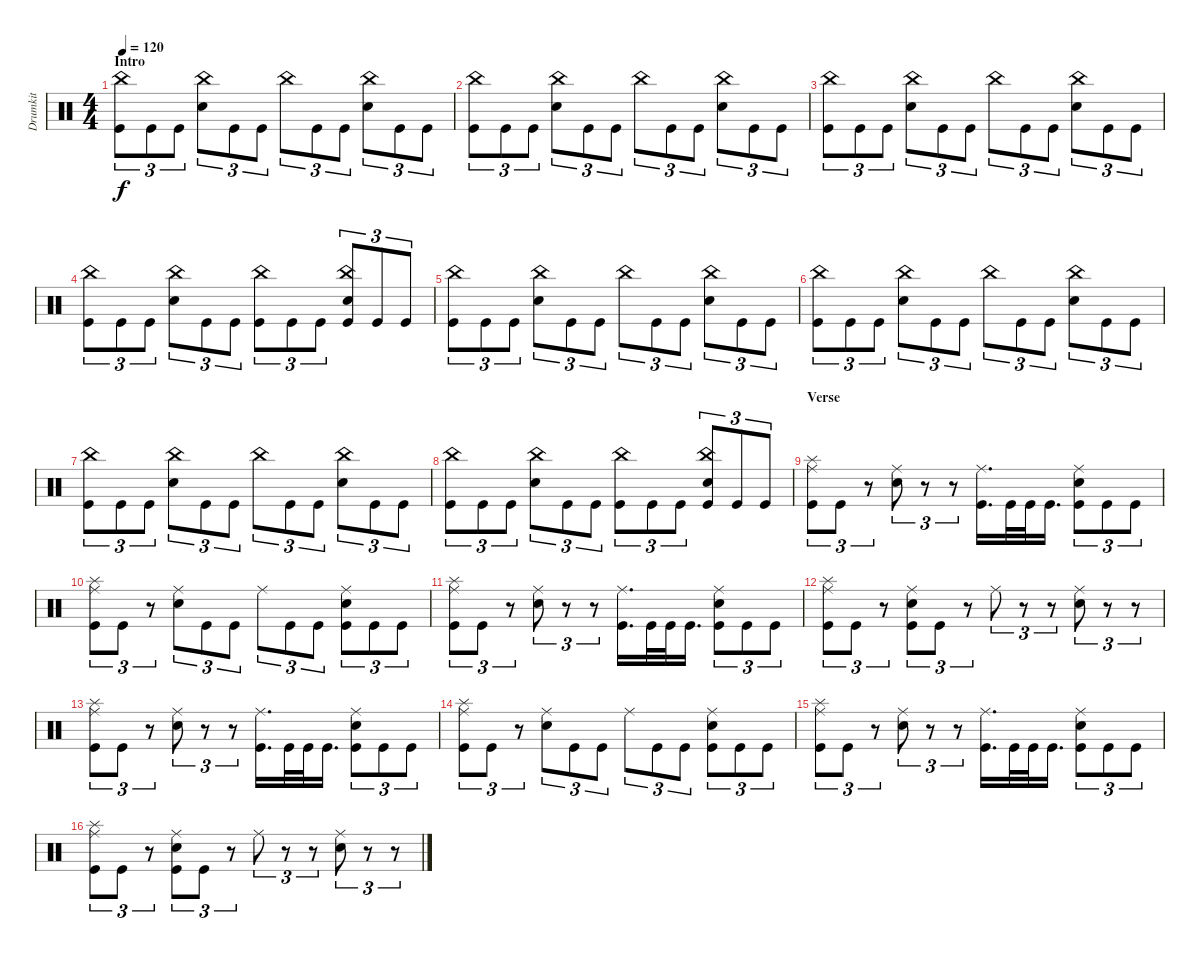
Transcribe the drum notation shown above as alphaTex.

\track ("Drumkit" "Drumkit") {instrument percussion}
\staff {score}
\articulation defaults
\ts (4 4)
\section ("" "Intro")
\tempo 120
\clef neutral
\ks c
("Kick (hit)" "China (hit)").8{tu (3 2) dy f} "Kick (hit)".8{tu (3 2)} "Kick (hit)".8{tu (3 2)} ("Snare (hit) 2" "China (hit)").8{tu (3 2)} "Kick (hit)".8{tu (3 2)} "Kick (hit)".8{tu (3 2)} "China (hit)".8{tu (3 2)} "Kick (hit)".8{tu (3 2)} "Kick (hit)".8{tu (3 2)} ("Snare (hit) 2" "China (hit)").8{tu (3 2)} "Kick (hit)".8{tu (3 2)} "Kick (hit)".8{tu (3 2)} |
("Kick (hit)" "China (hit)").8{tu (3 2)} "Kick (hit)".8{tu (3 2)} "Kick (hit)".8{tu (3 2)} ("Snare (hit) 2" "China (hit)").8{tu (3 2)} "Kick (hit)".8{tu (3 2)} "Kick (hit)".8{tu (3 2)} "China (hit)".8{tu (3 2)} "Kick (hit)".8{tu (3 2)} "Kick (hit)".8{tu (3 2)} ("Snare (hit) 2" "China (hit)").8{tu (3 2)} "Kick (hit)".8{tu (3 2)} "Kick (hit)".8{tu (3 2)} |
("Kick (hit)" "China (hit)").8{tu (3 2)} "Kick (hit)".8{tu (3 2)} "Kick (hit)".8{tu (3 2)} ("Snare (hit) 2" "China (hit)").8{tu (3 2)} "Kick (hit)".8{tu (3 2)} "Kick (hit)".8{tu (3 2)} "China (hit)".8{tu (3 2)} "Kick (hit)".8{tu (3 2)} "Kick (hit)".8{tu (3 2)} ("Snare (hit) 2" "China (hit)").8{tu (3 2)} "Kick (hit)".8{tu (3 2)} "Kick (hit)".8{tu (3 2)} |
("Kick (hit)" "China (hit)").8{tu (3 2)} "Kick (hit)".8{tu (3 2)} "Kick (hit)".8{tu (3 2)} ("Snare (hit) 2" "China (hit)").8{tu (3 2)} "Kick (hit)".8{tu (3 2)} "Kick (hit)".8{tu (3 2)} ("China (hit)" "Kick (hit)").8{tu (3 2)} "Kick (hit)".8{tu (3 2)} "Kick (hit)".8{tu (3 2)} ("Snare (hit) 2" "China (hit)" "Kick (hit)").8{tu (3 2)} "Kick (hit)".8{tu (3 2)} "Kick (hit)".8{tu (3 2)} |
("Kick (hit)" "China (hit)").8{tu (3 2)} "Kick (hit)".8{tu (3 2)} "Kick (hit)".8{tu (3 2)} ("Snare (hit) 2" "China (hit)").8{tu (3 2)} "Kick (hit)".8{tu (3 2)} "Kick (hit)".8{tu (3 2)} "China (hit)".8{tu (3 2)} "Kick (hit)".8{tu (3 2)} "Kick (hit)".8{tu (3 2)} ("Snare (hit) 2" "China (hit)").8{tu (3 2)} "Kick (hit)".8{tu (3 2)} "Kick (hit)".8{tu (3 2)} |
("Kick (hit)" "China (hit)").8{tu (3 2)} "Kick (hit)".8{tu (3 2)} "Kick (hit)".8{tu (3 2)} ("Snare (hit) 2" "China (hit)").8{tu (3 2)} "Kick (hit)".8{tu (3 2)} "Kick (hit)".8{tu (3 2)} "China (hit)".8{tu (3 2)} "Kick (hit)".8{tu (3 2)} "Kick (hit)".8{tu (3 2)} ("Snare (hit) 2" "China (hit)").8{tu (3 2)} "Kick (hit)".8{tu (3 2)} "Kick (hit)".8{tu (3 2)} |
("Kick (hit)" "China (hit)").8{tu (3 2)} "Kick (hit)".8{tu (3 2)} "Kick (hit)".8{tu (3 2)} ("Snare (hit) 2" "China (hit)").8{tu (3 2)} "Kick (hit)".8{tu (3 2)} "Kick (hit)".8{tu (3 2)} "China (hit)".8{tu (3 2)} "Kick (hit)".8{tu (3 2)} "Kick (hit)".8{tu (3 2)} ("Snare (hit) 2" "China (hit)").8{tu (3 2)} "Kick (hit)".8{tu (3 2)} "Kick (hit)".8{tu (3 2)} |
("Kick (hit)" "China (hit)").8{tu (3 2)} "Kick (hit)".8{tu (3 2)} "Kick (hit)".8{tu (3 2)} ("Snare (hit) 2" "China (hit)").8{tu (3 2)} "Kick (hit)".8{tu (3 2)} "Kick (hit)".8{tu (3 2)} ("China (hit)" "Kick (hit)").8{tu (3 2)} "Kick (hit)".8{tu (3 2)} "Kick (hit)".8{tu (3 2)} ("Snare (hit) 2" "China (hit)" "Kick (hit)").8{tu (3 2)} "Kick (hit)".8{tu (3 2)} "Kick (hit)".8{tu (3 2)} |
\section ("" "Verse")
("Splash (hit)" "Kick (hit)" "Ride (middle)").8{tu (3 2)} "Kick (hit)".8{tu (3 2)} r.8{tu (3 2)} ("Ride (middle)" "Snare (hit) 2").8{tu (3 2)} r.8{tu (3 2)} r.8{tu (3 2)} ("Kick (hit)" "Ride (middle)").16{d} "Kick (hit)".32 "Kick (hit)".32 "Kick (hit)".16{d} ("Kick (hit)" "Ride (middle)" "Snare (hit) 2").8{tu (3 2)} "Kick (hit)".8{tu (3 2)} "Kick (hit)".8{tu (3 2)} |
("Splash (hit)" "Kick (hit)" "Ride (middle)").8{tu (3 2)} "Kick (hit)".8{tu (3 2)} r.8{tu (3 2)} ("Ride (middle)" "Snare (hit) 2").8{tu (3 2)} "Kick (hit)".8{tu (3 2)} "Kick (hit)".8{tu (3 2)} "Ride (middle)".8{tu (3 2)} "Kick (hit)".8{tu (3 2)} "Kick (hit)".8{tu (3 2)} ("Kick (hit)" "Ride (middle)" "Snare (hit) 2").8{tu (3 2)} "Kick (hit)".8{tu (3 2)} "Kick (hit)".8{tu (3 2)} |
("Splash (hit)" "Kick (hit)" "Ride (middle)").8{tu (3 2)} "Kick (hit)".8{tu (3 2)} r.8{tu (3 2)} ("Ride (middle)" "Snare (hit) 2").8{tu (3 2)} r.8{tu (3 2)} r.8{tu (3 2)} ("Kick (hit)" "Ride (middle)").16{d} "Kick (hit)".32 "Kick (hit)".32 "Kick (hit)".16{d} ("Kick (hit)" "Ride (middle)" "Snare (hit) 2").8{tu (3 2)} "Kick (hit)".8{tu (3 2)} "Kick (hit)".8{tu (3 2)} |
("Splash (hit)" "Kick (hit)" "Ride (middle)").8{tu (3 2)} "Kick (hit)".8{tu (3 2)} r.8{tu (3 2)} ("Ride (middle)" "Snare (hit) 2" "Kick (hit)").8{tu (3 2)} "Kick (hit)".8{tu (3 2)} r.8{tu (3 2)} "Ride (middle)".8{tu (3 2)} r.8{tu (3 2)} r.8{tu (3 2)} ("Ride (middle)" "Snare (hit) 2").8{tu (3 2)} r.8{tu (3 2)} r.8{tu (3 2)} |
("Splash (hit)" "Kick (hit)" "Ride (middle)").8{tu (3 2)} "Kick (hit)".8{tu (3 2)} r.8{tu (3 2)} ("Ride (middle)" "Snare (hit) 2").8{tu (3 2)} r.8{tu (3 2)} r.8{tu (3 2)} ("Kick (hit)" "Ride (middle)").16{d} "Kick (hit)".32 "Kick (hit)".32 "Kick (hit)".16{d} ("Kick (hit)" "Ride (middle)" "Snare (hit) 2").8{tu (3 2)} "Kick (hit)".8{tu (3 2)} "Kick (hit)".8{tu (3 2)} |
("Splash (hit)" "Kick (hit)" "Ride (middle)").8{tu (3 2)} "Kick (hit)".8{tu (3 2)} r.8{tu (3 2)} ("Ride (middle)" "Snare (hit) 2").8{tu (3 2)} "Kick (hit)".8{tu (3 2)} "Kick (hit)".8{tu (3 2)} "Ride (middle)".8{tu (3 2)} "Kick (hit)".8{tu (3 2)} "Kick (hit)".8{tu (3 2)} ("Kick (hit)" "Ride (middle)" "Snare (hit) 2").8{tu (3 2)} "Kick (hit)".8{tu (3 2)} "Kick (hit)".8{tu (3 2)} |
("Splash (hit)" "Kick (hit)" "Ride (middle)").8{tu (3 2)} "Kick (hit)".8{tu (3 2)} r.8{tu (3 2)} ("Ride (middle)" "Snare (hit) 2").8{tu (3 2)} r.8{tu (3 2)} r.8{tu (3 2)} ("Kick (hit)" "Ride (middle)").16{d} "Kick (hit)".32 "Kick (hit)".32 "Kick (hit)".16{d} ("Kick (hit)" "Ride (middle)" "Snare (hit) 2").8{tu (3 2)} "Kick (hit)".8{tu (3 2)} "Kick (hit)".8{tu (3 2)} |
("Splash (hit)" "Kick (hit)" "Ride (middle)").8{tu (3 2)} "Kick (hit)".8{tu (3 2)} r.8{tu (3 2)} ("Ride (middle)" "Snare (hit) 2" "Kick (hit)").8{tu (3 2)} "Kick (hit)".8{tu (3 2)} r.8{tu (3 2)} "Ride (middle)".8{tu (3 2)} r.8{tu (3 2)} r.8{tu (3 2)} ("Ride (middle)" "Snare (hit) 2").8{tu (3 2)} r.8{tu (3 2)} r.8{tu (3 2)}
